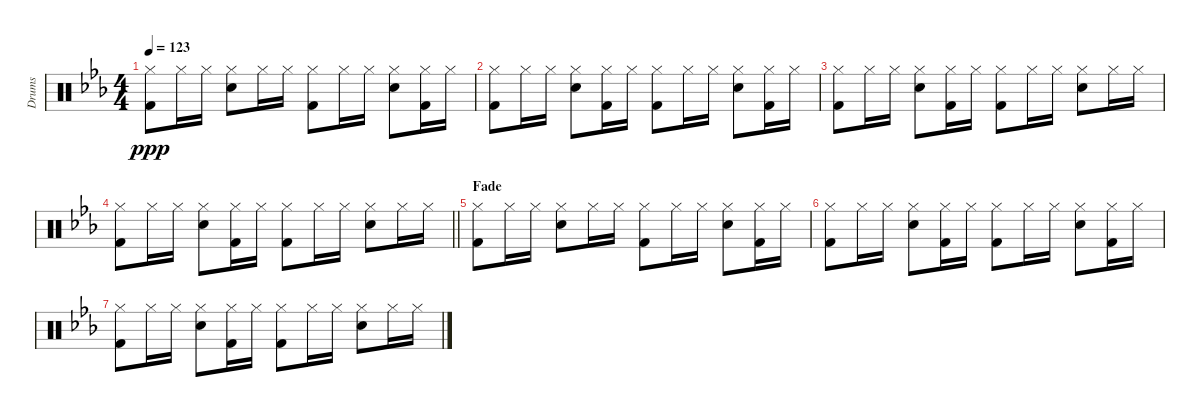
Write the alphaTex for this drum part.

\track ("Drums" "Drums") {instrument percussion}
\staff {score}
\articulation defaults
\ts (4 4)
\tempo 123
\clef neutral
\ks eb
("Hi-Hat (closed)" "Kick (hit) 2").8{dy ppp} "Hi-Hat (closed)".16 "Hi-Hat (closed)".16 ("Hi-Hat (closed)" "Electric Snare (hit)").8 "Hi-Hat (closed)".16 "Hi-Hat (closed)".16 ("Hi-Hat (closed)" "Kick (hit) 2").8 "Hi-Hat (closed)".16 "Hi-Hat (closed)".16 ("Hi-Hat (closed)" "Electric Snare (hit)").8 ("Hi-Hat (closed)" "Kick (hit) 2").16 "Hi-Hat (closed)".16 |
("Hi-Hat (closed)" "Kick (hit) 2").8 "Hi-Hat (closed)".16 "Hi-Hat (closed)".16 ("Hi-Hat (closed)" "Electric Snare (hit)").8 ("Hi-Hat (closed)" "Kick (hit) 2").16 "Hi-Hat (closed)".16 ("Hi-Hat (closed)" "Kick (hit) 2").8 "Hi-Hat (closed)".16 "Hi-Hat (closed)".16 ("Hi-Hat (closed)" "Electric Snare (hit)").8 ("Hi-Hat (closed)" "Kick (hit) 2").16 "Hi-Hat (closed)".16 |
("Hi-Hat (closed)" "Kick (hit) 2").8 "Hi-Hat (closed)".16 "Hi-Hat (closed)".16 ("Hi-Hat (closed)" "Electric Snare (hit)").8 ("Hi-Hat (closed)" "Kick (hit) 2").16 "Hi-Hat (closed)".16 ("Hi-Hat (closed)" "Kick (hit) 2").8 "Hi-Hat (closed)".16 "Hi-Hat (closed)".16 ("Hi-Hat (closed)" "Electric Snare (hit)").8 "Hi-Hat (closed)".16 "Hi-Hat (closed)".16 |
\barLineRight lightlight
("Hi-Hat (closed)" "Kick (hit) 2").8 "Hi-Hat (closed)".16 "Hi-Hat (closed)".16 ("Hi-Hat (closed)" "Electric Snare (hit)").8 ("Hi-Hat (closed)" "Kick (hit) 2").16 "Hi-Hat (closed)".16 ("Hi-Hat (closed)" "Kick (hit) 2").8 "Hi-Hat (closed)".16 "Hi-Hat (closed)".16 ("Hi-Hat (closed)" "Electric Snare (hit)").8 "Hi-Hat (closed)".16 "Hi-Hat (closed)".16 |
\section ("" "Fade")
("Hi-Hat (closed)" "Kick (hit) 2").8 "Hi-Hat (closed)".16 "Hi-Hat (closed)".16 ("Hi-Hat (closed)" "Electric Snare (hit)").8 "Hi-Hat (closed)".16 "Hi-Hat (closed)".16 ("Hi-Hat (closed)" "Kick (hit) 2").8 "Hi-Hat (closed)".16 "Hi-Hat (closed)".16 ("Hi-Hat (closed)" "Electric Snare (hit)").8 ("Hi-Hat (closed)" "Kick (hit) 2").16 "Hi-Hat (closed)".16 |
("Hi-Hat (closed)" "Kick (hit) 2").8 "Hi-Hat (closed)".16 "Hi-Hat (closed)".16 ("Hi-Hat (closed)" "Electric Snare (hit)").8 ("Hi-Hat (closed)" "Kick (hit) 2").16 "Hi-Hat (closed)".16 ("Hi-Hat (closed)" "Kick (hit) 2").8 "Hi-Hat (closed)".16 "Hi-Hat (closed)".16 ("Hi-Hat (closed)" "Electric Snare (hit)").8 ("Hi-Hat (closed)" "Kick (hit) 2").16 "Hi-Hat (closed)".16 |
("Hi-Hat (closed)" "Kick (hit) 2").8 "Hi-Hat (closed)".16 "Hi-Hat (closed)".16 ("Hi-Hat (closed)" "Electric Snare (hit)").8 ("Hi-Hat (closed)" "Kick (hit) 2").16 "Hi-Hat (closed)".16 ("Hi-Hat (closed)" "Kick (hit) 2").8 "Hi-Hat (closed)".16 "Hi-Hat (closed)".16 ("Hi-Hat (closed)" "Electric Snare (hit)").8 "Hi-Hat (closed)".16 "Hi-Hat (closed)".16
